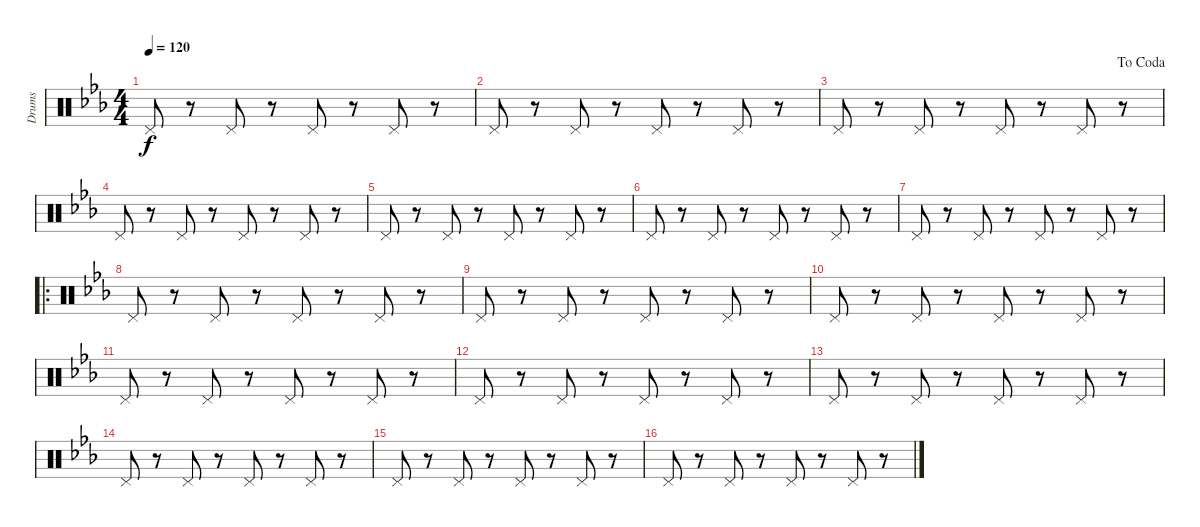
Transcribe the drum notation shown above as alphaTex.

\track ("Drums" "Drums") {instrument percussion}
\staff {score}
\articulation defaults
\ts (4 4)
\tempo 120
\clef neutral
\ks cminor "Pedal Hi-Hat (hit)".8{dy f}
r.8 "Pedal Hi-Hat (hit)".8 r.8 "Pedal Hi-Hat (hit)".8 r.8 "Pedal Hi-Hat (hit)".8 r.8 |
"Pedal Hi-Hat (hit)".8 r.8 "Pedal Hi-Hat (hit)".8 r.8 "Pedal Hi-Hat (hit)".8 r.8 "Pedal Hi-Hat (hit)".8 r.8 |
\jump dacoda "Pedal Hi-Hat (hit)".8
r.8 "Pedal Hi-Hat (hit)".8 r.8 "Pedal Hi-Hat (hit)".8 r.8 "Pedal Hi-Hat (hit)".8 r.8 |
"Pedal Hi-Hat (hit)".8 r.8 "Pedal Hi-Hat (hit)".8 r.8 "Pedal Hi-Hat (hit)".8 r.8 "Pedal Hi-Hat (hit)".8 r.8 |
"Pedal Hi-Hat (hit)".8 r.8 "Pedal Hi-Hat (hit)".8 r.8 "Pedal Hi-Hat (hit)".8 r.8 "Pedal Hi-Hat (hit)".8 r.8 |
"Pedal Hi-Hat (hit)".8 r.8 "Pedal Hi-Hat (hit)".8 r.8 "Pedal Hi-Hat (hit)".8 r.8 "Pedal Hi-Hat (hit)".8 r.8 |
"Pedal Hi-Hat (hit)".8 r.8 "Pedal Hi-Hat (hit)".8 r.8 "Pedal Hi-Hat (hit)".8 r.8 "Pedal Hi-Hat (hit)".8 r.8 |
\ro "Pedal Hi-Hat (hit)".8
r.8 "Pedal Hi-Hat (hit)".8 r.8 "Pedal Hi-Hat (hit)".8 r.8 "Pedal Hi-Hat (hit)".8 r.8 |
"Pedal Hi-Hat (hit)".8 r.8 "Pedal Hi-Hat (hit)".8 r.8 "Pedal Hi-Hat (hit)".8 r.8 "Pedal Hi-Hat (hit)".8 r.8 |
"Pedal Hi-Hat (hit)".8 r.8 "Pedal Hi-Hat (hit)".8 r.8 "Pedal Hi-Hat (hit)".8 r.8 "Pedal Hi-Hat (hit)".8 r.8 |
"Pedal Hi-Hat (hit)".8 r.8 "Pedal Hi-Hat (hit)".8 r.8 "Pedal Hi-Hat (hit)".8 r.8 "Pedal Hi-Hat (hit)".8 r.8 |
"Pedal Hi-Hat (hit)".8 r.8 "Pedal Hi-Hat (hit)".8 r.8 "Pedal Hi-Hat (hit)".8 r.8 "Pedal Hi-Hat (hit)".8 r.8 |
"Pedal Hi-Hat (hit)".8 r.8 "Pedal Hi-Hat (hit)".8 r.8 "Pedal Hi-Hat (hit)".8 r.8 "Pedal Hi-Hat (hit)".8 r.8 |
"Pedal Hi-Hat (hit)".8 r.8 "Pedal Hi-Hat (hit)".8 r.8 "Pedal Hi-Hat (hit)".8 r.8 "Pedal Hi-Hat (hit)".8 r.8 |
"Pedal Hi-Hat (hit)".8 r.8 "Pedal Hi-Hat (hit)".8 r.8 "Pedal Hi-Hat (hit)".8 r.8 "Pedal Hi-Hat (hit)".8 r.8 |
"Pedal Hi-Hat (hit)".8 r.8 "Pedal Hi-Hat (hit)".8 r.8 "Pedal Hi-Hat (hit)".8 r.8 "Pedal Hi-Hat (hit)".8 r.8
